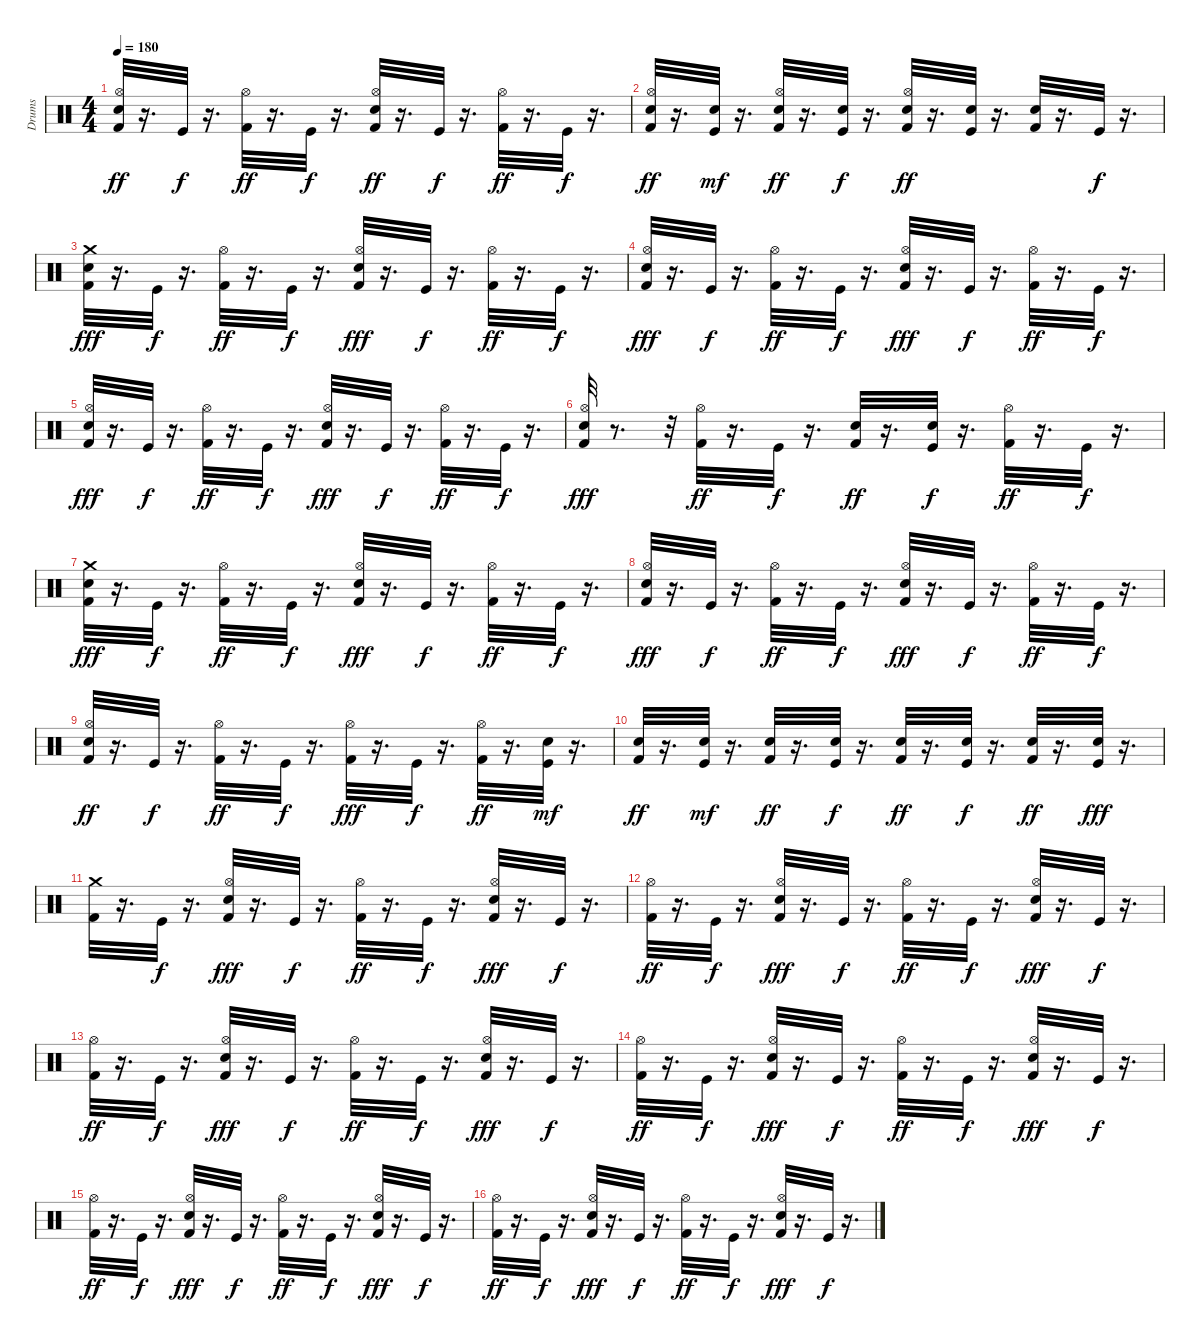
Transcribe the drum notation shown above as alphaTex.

\track ("Drums" "Drums") {instrument percussion}
\staff {score}
\articulation defaults
\ts (4 4)
\tempo 180
\clef neutral
\ks c
("Snare (hit) 2" "Hi-Hat (open)" "Kick (hit) 2").32{dy ff} r.16{d} "Kick (hit)".32{dy f} r.16{d} ("Hi-Hat (open)" "Kick (hit) 2").32{dy ff} r.16{d} "Kick (hit)".32{dy f} r.16{d} ("Snare (hit) 2" "Hi-Hat (open)" "Kick (hit) 2").32{dy ff} r.16{d} "Kick (hit)".32{dy f} r.16{d} ("Hi-Hat (open)" "Kick (hit) 2").32{dy ff} r.16{d} "Kick (hit)".32{dy f} r.16{d} |
("Hi-Hat (open)" "Snare (hit) 2" "Kick (hit) 2").32{dy ff} r.16{d} ("Snare (hit) 2" "Kick (hit)").32{dy mf} r.16{d} ("Hi-Hat (open)" "Snare (hit) 2" "Kick (hit) 2").32{dy ff} r.16{d} ("Snare (hit) 2" "Kick (hit)").32{dy f} r.16{d} ("Hi-Hat (open)" "Snare (hit) 2" "Kick (hit) 2").32{dy ff} r.16{d} ("Snare (hit) 2" "Kick (hit)").32 r.16{d} ("Snare (hit) 2" "Kick (hit) 2").32 r.16{d} "Kick (hit)".32{dy f} r.16{d} |
("Snare (hit) 2" "Kick (hit) 2" "Crash medium (hit)").32{dy fff} r.16{d} "Kick (hit)".32{dy f} r.16{d} ("Kick (hit) 2" "Hi-Hat (open)").32{dy ff} r.16{d} "Kick (hit)".32{dy f} r.16{d} ("Snare (hit) 2" "Kick (hit) 2" "Hi-Hat (open)").32{dy fff} r.16{d} "Kick (hit)".32{dy f} r.16{d} ("Kick (hit) 2" "Hi-Hat (open)").32{dy ff} r.16{d} "Kick (hit)".32{dy f} r.16{d} |
("Snare (hit) 2" "Kick (hit) 2" "Hi-Hat (open)").32{dy fff} r.16{d} "Kick (hit)".32{dy f} r.16{d} ("Kick (hit) 2" "Hi-Hat (open)").32{dy ff} r.16{d} "Kick (hit)".32{dy f} r.16{d} ("Snare (hit) 2" "Kick (hit) 2" "Hi-Hat (open)").32{dy fff} r.16{d} "Kick (hit)".32{dy f} r.16{d} ("Kick (hit) 2" "Hi-Hat (open)").32{dy ff} r.16{d} "Kick (hit)".32{dy f} r.16{d} |
("Snare (hit) 2" "Kick (hit) 2" "Hi-Hat (open)").32{dy fff} r.16{d} "Kick (hit)".32{dy f} r.16{d} ("Kick (hit) 2" "Hi-Hat (open)").32{dy ff} r.16{d} "Kick (hit)".32{dy f} r.16{d} ("Snare (hit) 2" "Kick (hit) 2" "Hi-Hat (open)").32{dy fff} r.16{d} "Kick (hit)".32{dy f} r.16{d} ("Kick (hit) 2" "Hi-Hat (open)").32{dy ff} r.16{d} "Kick (hit)".32{dy f} r.16{d} |
("Snare (hit) 2" "Kick (hit) 2" "Hi-Hat (open)").32{dy fff} r.8{d} r.32 ("Kick (hit) 2" "Hi-Hat (open)").32{dy ff} r.16{d} "Kick (hit)".32{dy f} r.16{d} ("Snare (hit) 2" "Kick (hit) 2").32{dy ff} r.16{d} ("Snare (hit) 2" "Kick (hit)").32{dy f} r.16{d} ("Kick (hit) 2" "Hi-Hat (open)").32{dy ff} r.16{d} "Kick (hit)".32{dy f} r.16{d} |
("Snare (hit) 2" "Kick (hit) 2" "Crash medium (hit)").32{dy fff} r.16{d} "Kick (hit)".32{dy f} r.16{d} ("Kick (hit) 2" "Hi-Hat (open)").32{dy ff} r.16{d} "Kick (hit)".32{dy f} r.16{d} ("Snare (hit) 2" "Kick (hit) 2" "Hi-Hat (open)").32{dy fff} r.16{d} "Kick (hit)".32{dy f} r.16{d} ("Kick (hit) 2" "Hi-Hat (open)").32{dy ff} r.16{d} "Kick (hit)".32{dy f} r.16{d} |
("Snare (hit) 2" "Kick (hit) 2" "Hi-Hat (open)").32{dy fff} r.16{d} "Kick (hit)".32{dy f} r.16{d} ("Kick (hit) 2" "Hi-Hat (open)").32{dy ff} r.16{d} "Kick (hit)".32{dy f} r.16{d} ("Snare (hit) 2" "Kick (hit) 2" "Hi-Hat (open)").32{dy fff} r.16{d} "Kick (hit)".32{dy f} r.16{d} ("Kick (hit) 2" "Hi-Hat (open)").32{dy ff} r.16{d} "Kick (hit)".32{dy f} r.16{d} |
("Hi-Hat (open)" "Snare (hit) 2" "Kick (hit) 2").32{dy ff} r.16{d} "Kick (hit)".32{dy f} r.16{d} ("Kick (hit) 2" "Hi-Hat (open)").32{dy ff} r.16{d} "Kick (hit)".32{dy f} r.16{d} ("Kick (hit) 2" "Hi-Hat (open)").32{dy fff} r.16{d} "Kick (hit)".32{dy f} r.16{d} ("Kick (hit) 2" "Hi-Hat (open)").32{dy ff} r.16{d} ("Snare (hit) 2" "Kick (hit)").32{dy mf} r.16{d} |
("Snare (hit) 2" "Kick (hit) 2").32{dy ff} r.16{d} ("Snare (hit) 2" "Kick (hit)").32{dy mf} r.16{d} ("Snare (hit) 2" "Kick (hit) 2").32{dy ff} r.16{d} ("Snare (hit) 2" "Kick (hit)").32{dy f} r.16{d} ("Snare (hit) 2" "Kick (hit) 2").32{dy ff} r.16{d} ("Snare (hit) 2" "Kick (hit)").32{dy f} r.16{d} ("Snare (hit) 2" "Kick (hit) 2").32{dy ff} r.16{d} ("Snare (hit) 2" "Kick (hit)").32{dy fff} r.16{d} |
("Kick (hit) 2" "Crash medium (hit)").32 r.16{d} "Kick (hit)".32{dy f} r.16{d} ("Kick (hit) 2" "Snare (hit) 2" "Hi-Hat (open)").32{dy fff} r.16{d} "Kick (hit)".32{dy f} r.16{d} ("Kick (hit) 2" "Hi-Hat (open)").32{dy ff} r.16{d} "Kick (hit)".32{dy f} r.16{d} ("Kick (hit) 2" "Snare (hit) 2" "Hi-Hat (open)").32{dy fff} r.16{d} "Kick (hit)".32{dy f} r.16{d} |
("Kick (hit) 2" "Hi-Hat (open)").32{dy ff} r.16{d} "Kick (hit)".32{dy f} r.16{d} ("Kick (hit) 2" "Snare (hit) 2" "Hi-Hat (open)").32{dy fff} r.16{d} "Kick (hit)".32{dy f} r.16{d} ("Kick (hit) 2" "Hi-Hat (open)").32{dy ff} r.16{d} "Kick (hit)".32{dy f} r.16{d} ("Kick (hit) 2" "Snare (hit) 2" "Hi-Hat (open)").32{dy fff} r.16{d} "Kick (hit)".32{dy f} r.16{d} |
("Kick (hit) 2" "Hi-Hat (open)").32{dy ff} r.16{d} "Kick (hit)".32{dy f} r.16{d} ("Kick (hit) 2" "Snare (hit) 2" "Hi-Hat (open)").32{dy fff} r.16{d} "Kick (hit)".32{dy f} r.16{d} ("Kick (hit) 2" "Hi-Hat (open)").32{dy ff} r.16{d} "Kick (hit)".32{dy f} r.16{d} ("Kick (hit) 2" "Snare (hit) 2" "Hi-Hat (open)").32{dy fff} r.16{d} "Kick (hit)".32{dy f} r.16{d} |
("Kick (hit) 2" "Hi-Hat (open)").32{dy ff} r.16{d} "Kick (hit)".32{dy f} r.16{d} ("Kick (hit) 2" "Snare (hit) 2" "Hi-Hat (open)").32{dy fff} r.16{d} "Kick (hit)".32{dy f} r.16{d} ("Kick (hit) 2" "Hi-Hat (open)").32{dy ff} r.16{d} "Kick (hit)".32{dy f} r.16{d} ("Kick (hit) 2" "Snare (hit) 2" "Hi-Hat (open)").32{dy fff} r.16{d} "Kick (hit)".32{dy f} r.16{d} |
("Kick (hit) 2" "Hi-Hat (open)").32{dy ff} r.16{d} "Kick (hit)".32{dy f} r.16{d} ("Kick (hit) 2" "Snare (hit) 2" "Hi-Hat (open)").32{dy fff} r.16{d} "Kick (hit)".32{dy f} r.16{d} ("Kick (hit) 2" "Hi-Hat (open)").32{dy ff} r.16{d} "Kick (hit)".32{dy f} r.16{d} ("Kick (hit) 2" "Snare (hit) 2" "Hi-Hat (open)").32{dy fff} r.16{d} "Kick (hit)".32{dy f} r.16{d} |
("Kick (hit) 2" "Hi-Hat (open)").32{dy ff} r.16{d} "Kick (hit)".32{dy f} r.16{d} ("Kick (hit) 2" "Snare (hit) 2" "Hi-Hat (open)").32{dy fff} r.16{d} "Kick (hit)".32{dy f} r.16{d} ("Kick (hit) 2" "Hi-Hat (open)").32{dy ff} r.16{d} "Kick (hit)".32{dy f} r.16{d} ("Kick (hit) 2" "Snare (hit) 2" "Hi-Hat (open)").32{dy fff} r.16{d} "Kick (hit)".32{dy f} r.16{d}
